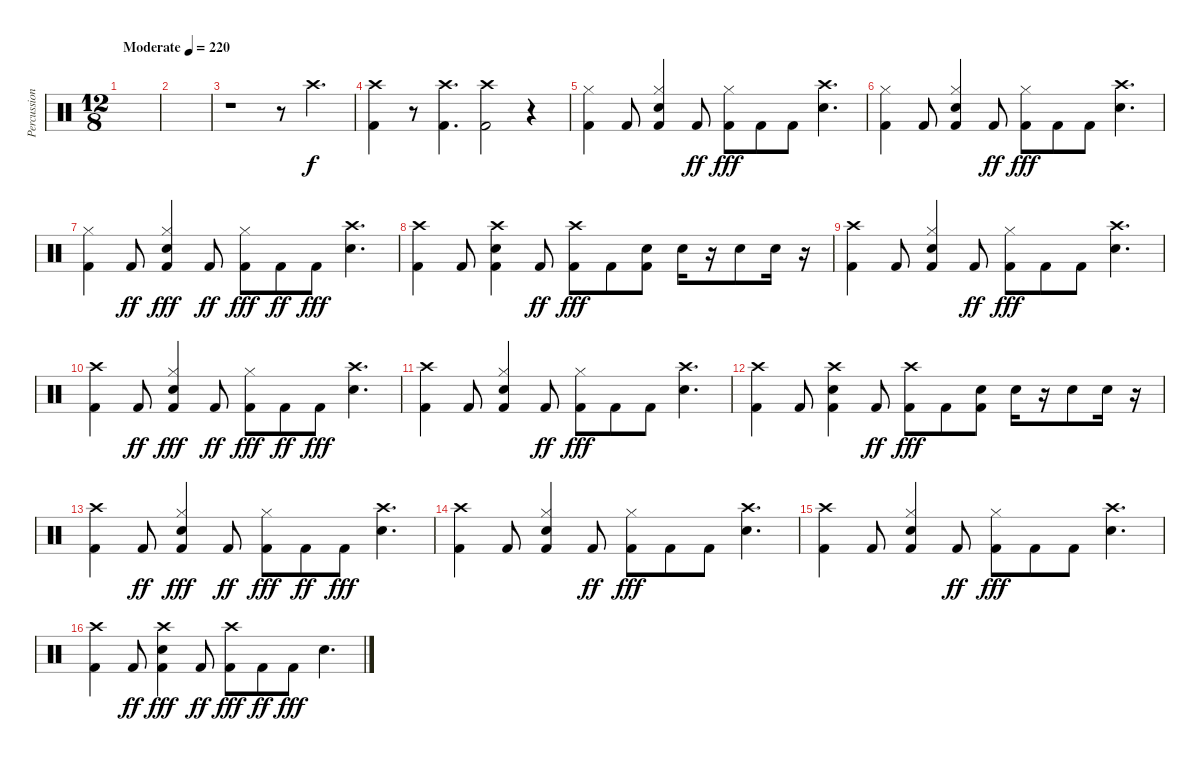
\track ("Percussion" "Percussion") {instrument percussion}
\staff {score}
\articulation defaults
\ts (12 8)
\tempo (220 "Moderate")
\clef neutral
\ks c
|
|
r.1 r.8 "Crash high (hit)".4{d} |
("Kick (hit) 2" "Crash high (hit)").4 r.8 ("Kick (hit) 2" "Crash high (hit)").4{d} ("Kick (hit) 2" "Crash high (hit)").2 r.4 |
("Kick (hit) 2" "Hi-Hat (closed)").4 "Kick (hit) 2".8 ("Kick (hit) 2" "Snare (hit) 2" "Hi-Hat (closed)").4 "Kick (hit) 2".8{dy ff} ("Kick (hit) 2" "Hi-Hat (closed)").8{dy fff} "Kick (hit) 2".8 "Kick (hit) 2".8 ("Snare (hit) 2" "Crash high (hit)").4{d} |
("Kick (hit) 2" "Hi-Hat (closed)").4 "Kick (hit) 2".8 ("Kick (hit) 2" "Snare (hit) 2" "Hi-Hat (closed)").4 "Kick (hit) 2".8{dy ff} ("Kick (hit) 2" "Hi-Hat (closed)").8{dy fff} "Kick (hit) 2".8 "Kick (hit) 2".8 ("Snare (hit) 2" "Crash high (hit)").4{d} |
("Kick (hit) 2" "Hi-Hat (closed)").4 "Kick (hit) 2".8{dy ff} ("Kick (hit) 2" "Snare (hit) 2" "Hi-Hat (closed)").4{dy fff} "Kick (hit) 2".8{dy ff} ("Kick (hit) 2" "Hi-Hat (closed)").8{dy fff} "Kick (hit) 2".8{dy ff} "Kick (hit) 2".8{dy fff} ("Snare (hit) 2" "Crash high (hit)").4{d} |
("Kick (hit) 2" "Crash high (hit)").4 "Kick (hit) 2".8 ("Kick (hit) 2" "Snare (hit) 2" "Crash high (hit)").4 "Kick (hit) 2".8{dy ff} ("Kick (hit) 2" "Crash high (hit)").8{dy fff} "Kick (hit) 2".8 ("Kick (hit) 2" "Snare (hit) 2").8 "Snare (hit) 2".16 r.16 "Snare (hit) 2".8 "Snare (hit) 2".16 r.16 |
("Kick (hit) 2" "Crash high (hit)").4 "Kick (hit) 2".8 ("Kick (hit) 2" "Snare (hit) 2" "Hi-Hat (closed)").4 "Kick (hit) 2".8{dy ff} ("Kick (hit) 2" "Hi-Hat (closed)").8{dy fff} "Kick (hit) 2".8 "Kick (hit) 2".8 ("Snare (hit) 2" "Crash high (hit)").4{d} |
("Kick (hit) 2" "Crash high (hit)").4 "Kick (hit) 2".8{dy ff} ("Kick (hit) 2" "Snare (hit) 2" "Hi-Hat (closed)").4{dy fff} "Kick (hit) 2".8{dy ff} ("Kick (hit) 2" "Hi-Hat (closed)").8{dy fff} "Kick (hit) 2".8{dy ff} "Kick (hit) 2".8{dy fff} ("Snare (hit) 2" "Crash high (hit)").4{d} |
("Kick (hit) 2" "Crash high (hit)").4 "Kick (hit) 2".8 ("Kick (hit) 2" "Snare (hit) 2" "Hi-Hat (closed)").4 "Kick (hit) 2".8{dy ff} ("Kick (hit) 2" "Hi-Hat (closed)").8{dy fff} "Kick (hit) 2".8 "Kick (hit) 2".8 ("Snare (hit) 2" "Crash high (hit)").4{d} |
("Kick (hit) 2" "Crash high (hit)").4 "Kick (hit) 2".8 ("Kick (hit) 2" "Snare (hit) 2" "Crash high (hit)").4 "Kick (hit) 2".8{dy ff} ("Kick (hit) 2" "Crash high (hit)").8{dy fff} "Kick (hit) 2".8 ("Kick (hit) 2" "Snare (hit) 2").8 "Snare (hit) 2".16 r.16 "Snare (hit) 2".8 "Snare (hit) 2".16 r.16 |
("Kick (hit) 2" "Crash high (hit)").4 "Kick (hit) 2".8{dy ff} ("Kick (hit) 2" "Snare (hit) 2" "Hi-Hat (closed)").4{dy fff} "Kick (hit) 2".8{dy ff} ("Kick (hit) 2" "Hi-Hat (closed)").8{dy fff} "Kick (hit) 2".8{dy ff} "Kick (hit) 2".8{dy fff} ("Snare (hit) 2" "Crash high (hit)").4{d} |
("Kick (hit) 2" "Crash high (hit)").4 "Kick (hit) 2".8 ("Kick (hit) 2" "Snare (hit) 2" "Hi-Hat (closed)").4 "Kick (hit) 2".8{dy ff} ("Kick (hit) 2" "Hi-Hat (closed)").8{dy fff} "Kick (hit) 2".8 "Kick (hit) 2".8 ("Snare (hit) 2" "Crash high (hit)").4{d} |
("Kick (hit) 2" "Crash high (hit)").4 "Kick (hit) 2".8 ("Kick (hit) 2" "Snare (hit) 2" "Hi-Hat (closed)").4 "Kick (hit) 2".8{dy ff} ("Kick (hit) 2" "Hi-Hat (closed)").8{dy fff} "Kick (hit) 2".8 "Kick (hit) 2".8 ("Snare (hit) 2" "Crash high (hit)").4{d} |
("Kick (hit) 2" "Crash high (hit)").4 "Kick (hit) 2".8{dy ff} ("Kick (hit) 2" "Snare (hit) 2" "Crash high (hit)").4{dy fff} "Kick (hit) 2".8{dy ff} ("Kick (hit) 2" "Crash high (hit)").8{dy fff} "Kick (hit) 2".8{dy ff} "Kick (hit) 2".8{dy fff} "Snare (hit) 2".4{d}
